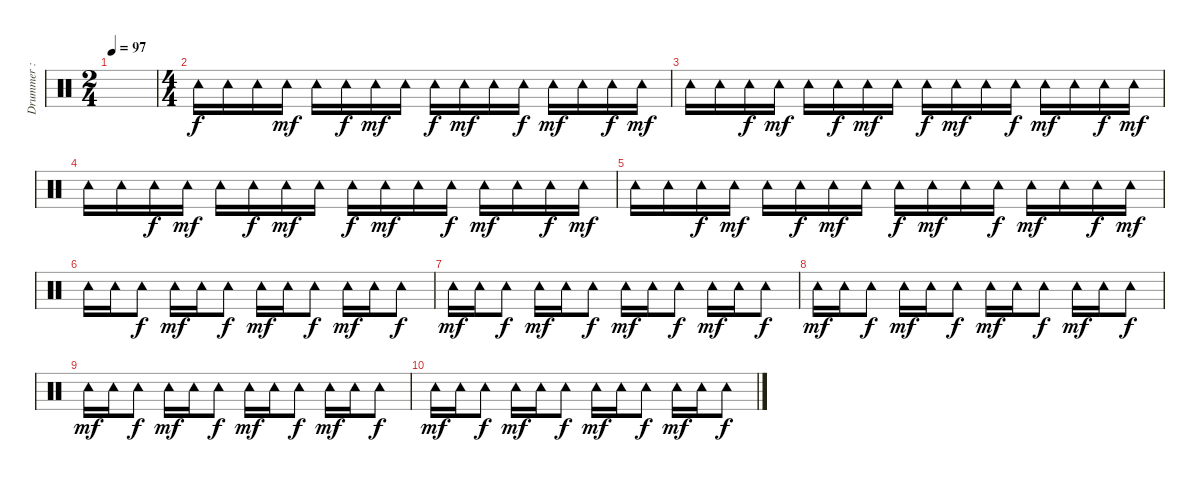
\track ("Drummer : Tainaka Ritsu - Tan" "Drummer : ") {instrument percussion}
\staff {score}
\articulation defaults
\ts (2 4)
\tempo 97
\clef neutral
\ks c
|
\ts (4 4)
"Tambourine (hit)".16 "Tambourine (hit)".16 "Tambourine (hit)".16{dy f} "Tambourine (hit)".16{dy mf} "Tambourine (hit)".16 "Tambourine (hit)".16{dy f} "Tambourine (hit)".16{dy mf} "Tambourine (hit)".16 "Tambourine (hit)".16{dy f} "Tambourine (hit)".16{dy mf} "Tambourine (hit)".16 "Tambourine (hit)".16{dy f} "Tambourine (hit)".16{dy mf} "Tambourine (hit)".16 "Tambourine (hit)".16{dy f} "Tambourine (hit)".16{dy mf} |
"Tambourine (hit)".16 "Tambourine (hit)".16 "Tambourine (hit)".16{dy f} "Tambourine (hit)".16{dy mf} "Tambourine (hit)".16 "Tambourine (hit)".16{dy f} "Tambourine (hit)".16{dy mf} "Tambourine (hit)".16 "Tambourine (hit)".16{dy f} "Tambourine (hit)".16{dy mf} "Tambourine (hit)".16 "Tambourine (hit)".16{dy f} "Tambourine (hit)".16{dy mf} "Tambourine (hit)".16 "Tambourine (hit)".16{dy f} "Tambourine (hit)".16{dy mf} |
"Tambourine (hit)".16 "Tambourine (hit)".16 "Tambourine (hit)".16{dy f} "Tambourine (hit)".16{dy mf} "Tambourine (hit)".16 "Tambourine (hit)".16{dy f} "Tambourine (hit)".16{dy mf} "Tambourine (hit)".16 "Tambourine (hit)".16{dy f} "Tambourine (hit)".16{dy mf} "Tambourine (hit)".16 "Tambourine (hit)".16{dy f} "Tambourine (hit)".16{dy mf} "Tambourine (hit)".16 "Tambourine (hit)".16{dy f} "Tambourine (hit)".16{dy mf} |
"Tambourine (hit)".16 "Tambourine (hit)".16 "Tambourine (hit)".16{dy f} "Tambourine (hit)".16{dy mf} "Tambourine (hit)".16 "Tambourine (hit)".16{dy f} "Tambourine (hit)".16{dy mf} "Tambourine (hit)".16 "Tambourine (hit)".16{dy f} "Tambourine (hit)".16{dy mf} "Tambourine (hit)".16 "Tambourine (hit)".16{dy f} "Tambourine (hit)".16{dy mf} "Tambourine (hit)".16 "Tambourine (hit)".16{dy f} "Tambourine (hit)".16{dy mf} |
"Tambourine (hit)".16 "Tambourine (hit)".16 "Tambourine (hit)".8{dy f} "Tambourine (hit)".16{dy mf} "Tambourine (hit)".16 "Tambourine (hit)".8{dy f} "Tambourine (hit)".16{dy mf} "Tambourine (hit)".16 "Tambourine (hit)".8{dy f} "Tambourine (hit)".16{dy mf} "Tambourine (hit)".16 "Tambourine (hit)".8{dy f} |
"Tambourine (hit)".16{dy mf} "Tambourine (hit)".16 "Tambourine (hit)".8{dy f} "Tambourine (hit)".16{dy mf} "Tambourine (hit)".16 "Tambourine (hit)".8{dy f} "Tambourine (hit)".16{dy mf} "Tambourine (hit)".16 "Tambourine (hit)".8{dy f} "Tambourine (hit)".16{dy mf} "Tambourine (hit)".16 "Tambourine (hit)".8{dy f} |
"Tambourine (hit)".16{dy mf} "Tambourine (hit)".16 "Tambourine (hit)".8{dy f} "Tambourine (hit)".16{dy mf} "Tambourine (hit)".16 "Tambourine (hit)".8{dy f} "Tambourine (hit)".16{dy mf} "Tambourine (hit)".16 "Tambourine (hit)".8{dy f} "Tambourine (hit)".16{dy mf} "Tambourine (hit)".16 "Tambourine (hit)".8{dy f} |
"Tambourine (hit)".16{dy mf} "Tambourine (hit)".16 "Tambourine (hit)".8{dy f} "Tambourine (hit)".16{dy mf} "Tambourine (hit)".16 "Tambourine (hit)".8{dy f} "Tambourine (hit)".16{dy mf} "Tambourine (hit)".16 "Tambourine (hit)".8{dy f} "Tambourine (hit)".16{dy mf} "Tambourine (hit)".16 "Tambourine (hit)".8{dy f} |
"Tambourine (hit)".16{dy mf} "Tambourine (hit)".16 "Tambourine (hit)".8{dy f} "Tambourine (hit)".16{dy mf} "Tambourine (hit)".16 "Tambourine (hit)".8{dy f} "Tambourine (hit)".16{dy mf} "Tambourine (hit)".16 "Tambourine (hit)".8{dy f} "Tambourine (hit)".16{dy mf} "Tambourine (hit)".16 "Tambourine (hit)".8{dy f}
